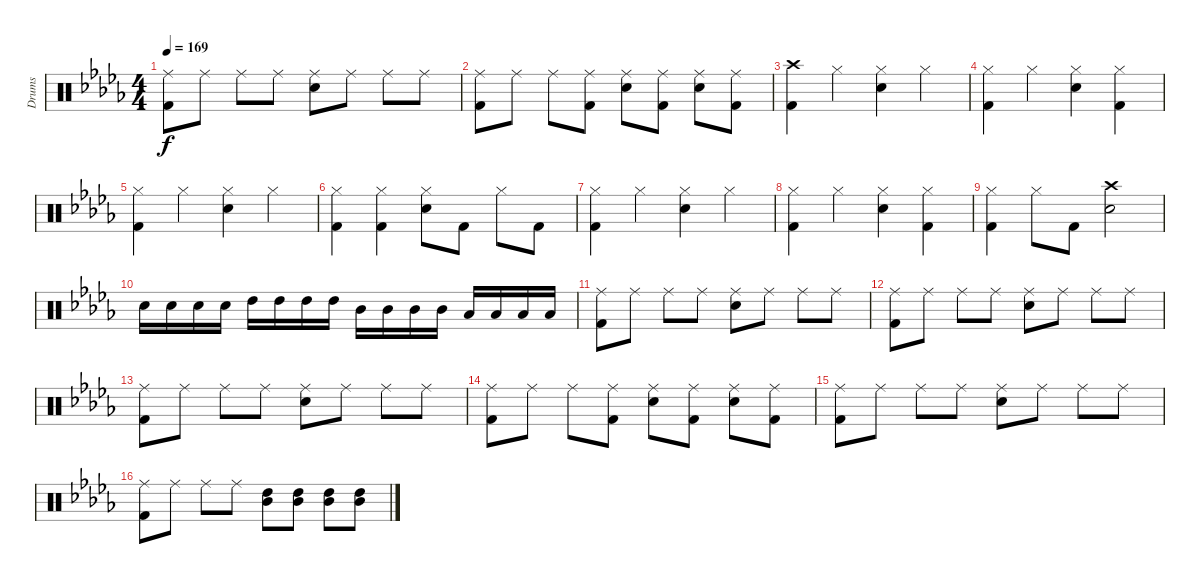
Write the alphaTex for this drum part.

\track ("Drums" "Drums") {instrument percussion}
\staff {score}
\articulation defaults
\ts (4 4)
\tempo 169
\clef neutral
\ks db
("Ride (middle)" "Kick (hit) 2").8{dy f} "Ride (middle)".8 "Ride (middle)".8 "Ride (middle)".8 ("Ride (middle)" "Snare (hit) 2").8 "Ride (middle)".8 "Ride (middle)".8 "Ride (middle)".8 |
("Ride (middle)" "Kick (hit) 2").8 "Ride (middle)".8 "Ride (middle)".8 ("Ride (middle)" "Kick (hit) 2").8 ("Ride (middle)" "Snare (hit) 2").8 ("Ride (middle)" "Kick (hit) 2").8 ("Ride (middle)" "Snare (hit) 2").8 ("Ride (middle)" "Kick (hit) 2").8 |
("Crash high (hit)" "Kick (hit) 2").4 "Hi-Hat (closed)".4 ("Hi-Hat (closed)" "Snare (hit) 2").4 "Hi-Hat (closed)".4 |
("Hi-Hat (closed)" "Kick (hit) 2").4 "Hi-Hat (closed)".4 ("Hi-Hat (closed)" "Snare (hit) 2").4 ("Hi-Hat (closed)" "Kick (hit) 2").4 |
("Hi-Hat (closed)" "Kick (hit) 2").4 "Hi-Hat (closed)".4 ("Hi-Hat (closed)" "Snare (hit) 2").4 "Hi-Hat (closed)".4 |
("Hi-Hat (closed)" "Kick (hit) 2").4 ("Hi-Hat (closed)" "Kick (hit) 2").4 ("Hi-Hat (closed)" "Snare (hit) 2").8 "Kick (hit) 2".8 "Hi-Hat (closed)".8 "Kick (hit) 2".8 |
("Hi-Hat (closed)" "Kick (hit) 2").4 "Hi-Hat (closed)".4 ("Hi-Hat (closed)" "Snare (hit) 2").4 "Hi-Hat (closed)".4 |
("Hi-Hat (closed)" "Kick (hit) 2").4 "Hi-Hat (closed)".4 ("Hi-Hat (closed)" "Snare (hit) 2").4 ("Hi-Hat (closed)" "Kick (hit) 2").4 |
("Hi-Hat (closed)" "Kick (hit) 2").4 "Hi-Hat (closed)".8 "Kick (hit) 2".8 ("Crash high (hit)" "Snare (hit) 2").2 |
"Snare (hit) 2".16 "Snare (hit) 2".16 "Snare (hit) 2".16 "Snare (hit) 2".16 "High Tom (hit)".16 "High Tom (hit)".16 "High Tom (hit)".16 "High Tom (hit)".16 "Mid Tom (hit)".16 "Mid Tom (hit)".16 "Mid Tom (hit)".16 "Mid Tom (hit)".16 "Low Tom (hit)".16 "Low Tom (hit)".16 "Low Tom (hit)".16 "Low Tom (hit)".16 |
("Ride (middle)" "Kick (hit) 2").8 "Ride (middle)".8 "Ride (middle)".8 "Ride (middle)".8 ("Ride (middle)" "Snare (hit) 2").8 "Ride (middle)".8 "Ride (middle)".8 "Ride (middle)".8 |
("Ride (middle)" "Kick (hit) 2").8 "Ride (middle)".8 "Ride (middle)".8 "Ride (middle)".8 ("Ride (middle)" "Snare (hit) 2").8 "Ride (middle)".8 "Ride (middle)".8 "Ride (middle)".8 |
("Ride (middle)" "Kick (hit) 2").8 "Ride (middle)".8 "Ride (middle)".8 "Ride (middle)".8 ("Ride (middle)" "Snare (hit) 2").8 "Ride (middle)".8 "Ride (middle)".8 "Ride (middle)".8 |
("Ride (middle)" "Kick (hit) 2").8 "Ride (middle)".8 "Ride (middle)".8 ("Ride (middle)" "Kick (hit) 2").8 ("Ride (middle)" "Snare (hit) 2").8 ("Ride (middle)" "Kick (hit) 2").8 ("Ride (middle)" "Snare (hit) 2").8 ("Ride (middle)" "Kick (hit) 2").8 |
("Ride (middle)" "Kick (hit) 2").8 "Ride (middle)".8 "Ride (middle)".8 "Ride (middle)".8 ("Ride (middle)" "Snare (hit) 2").8 "Ride (middle)".8 "Ride (middle)".8 "Ride (middle)".8 |
("Ride (middle)" "Kick (hit) 2").8 "Ride (middle)".8 "Ride (middle)".8 "Ride (middle)".8 ("Mid Tom (hit)" "High Tom (hit)").8 ("Mid Tom (hit)" "High Tom (hit)").8 ("Mid Tom (hit)" "High Tom (hit)").8 ("Mid Tom (hit)" "High Tom (hit)").8
